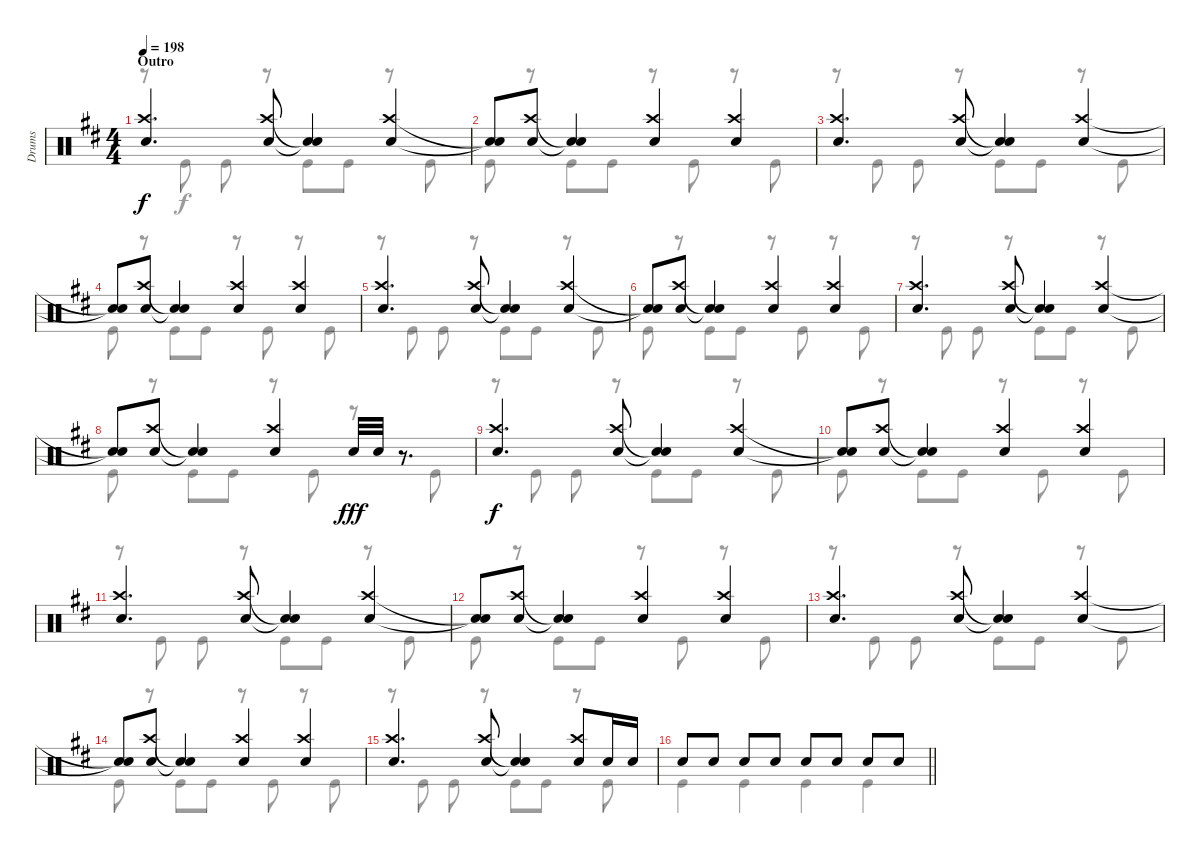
\track ("Drums" "Drums") {instrument percussion}
\staff {score}
\articulation defaults
\voice
\ts (4 4)
\section ("" "Outro")
\tempo 198
\clef neutral
\ks d
("Crash high (hit)" "Snare (hit) 2").4{d dy f} ("Crash high (hit)" "Snare (hit) 2").8 ("Snare (hit)"{t} "Snare (hit)"{t}).4 ("Crash high (hit)" "Snare (hit) 2").4 |
("Snare (hit)"{t} "Snare (hit)"{t}).8 ("Crash high (hit)" "Snare (hit) 2").8 ("Snare (hit)"{t} "Snare (hit)"{t}).4 ("Crash high (hit)" "Snare (hit) 2").4 ("Crash high (hit)" "Snare (hit) 2").4 |
("Crash high (hit)" "Snare (hit) 2").4{d} ("Crash high (hit)" "Snare (hit) 2").8 ("Snare (hit)"{t} "Snare (hit)"{t}).4 ("Crash high (hit)" "Snare (hit) 2").4 |
("Snare (hit)"{t} "Snare (hit)"{t}).8 ("Crash high (hit)" "Snare (hit) 2").8 ("Snare (hit)"{t} "Snare (hit)"{t}).4 ("Crash high (hit)" "Snare (hit) 2").4 ("Crash high (hit)" "Snare (hit) 2").4 |
("Crash high (hit)" "Snare (hit) 2").4{d} ("Crash high (hit)" "Snare (hit) 2").8 ("Snare (hit)"{t} "Snare (hit)"{t}).4 ("Crash high (hit)" "Snare (hit) 2").4 |
("Snare (hit)"{t} "Snare (hit)"{t}).8 ("Crash high (hit)" "Snare (hit) 2").8 ("Snare (hit)"{t} "Snare (hit)"{t}).4 ("Crash high (hit)" "Snare (hit) 2").4 ("Crash high (hit)" "Snare (hit) 2").4 |
("Crash high (hit)" "Snare (hit) 2").4{d} ("Crash high (hit)" "Snare (hit) 2").8 ("Snare (hit)"{t} "Snare (hit)"{t}).4 ("Crash high (hit)" "Snare (hit) 2").4 |
("Snare (hit)"{t} "Snare (hit)"{t}).8 ("Crash high (hit)" "Snare (hit) 2").8 ("Snare (hit)"{t} "Snare (hit)"{t}).4 ("Crash high (hit)" "Snare (hit) 2").4 "Snare (hit) 2".32{dy fff} "Snare (hit) 2".32 r.8{d} |
("Crash high (hit)" "Snare (hit) 2").4{d dy f} ("Crash high (hit)" "Snare (hit) 2").8 ("Snare (hit)"{t} "Snare (hit)"{t}).4 ("Crash high (hit)" "Snare (hit) 2").4 |
("Snare (hit)"{t} "Snare (hit)"{t}).8 ("Crash high (hit)" "Snare (hit) 2").8 ("Snare (hit)"{t} "Snare (hit)"{t}).4 ("Crash high (hit)" "Snare (hit) 2").4 ("Crash high (hit)" "Snare (hit) 2").4 |
("Crash high (hit)" "Snare (hit) 2").4{d} ("Crash high (hit)" "Snare (hit) 2").8 ("Snare (hit)"{t} "Snare (hit)"{t}).4 ("Crash high (hit)" "Snare (hit) 2").4 |
("Snare (hit)"{t} "Snare (hit)"{t}).8 ("Crash high (hit)" "Snare (hit) 2").8 ("Snare (hit)"{t} "Snare (hit)"{t}).4 ("Crash high (hit)" "Snare (hit) 2").4 ("Crash high (hit)" "Snare (hit) 2").4 |
("Crash high (hit)" "Snare (hit) 2").4{d} ("Crash high (hit)" "Snare (hit) 2").8 ("Snare (hit)"{t} "Snare (hit)"{t}).4 ("Crash high (hit)" "Snare (hit) 2").4 |
("Snare (hit)"{t} "Snare (hit)"{t}).8 ("Crash high (hit)" "Snare (hit) 2").8 ("Snare (hit)"{t} "Snare (hit)"{t}).4 ("Crash high (hit)" "Snare (hit) 2").4 ("Crash high (hit)" "Snare (hit) 2").4 |
("Crash high (hit)" "Snare (hit) 2").4{d} ("Crash high (hit)" "Snare (hit) 2").8 ("Snare (hit)"{t} "Snare (hit)"{t}).4 ("Crash high (hit)" "Snare (hit) 2").8 "Snare (hit) 2".16 "Snare (hit) 2".16 |
\barLineRight lightlight "Snare (hit) 2".8 "Snare (hit) 2".8 "Snare (hit) 2".8 "Snare (hit) 2".8 "Snare (hit) 2".8 "Snare (hit) 2".8 "Snare (hit) 2".8 "Snare (hit) 2".8
\voice
\clef neutral
\ottava regular
\simile none
\ks d
r.8{dy f} "Kick (hit)".8 "Kick (hit)".8 r.8 "Kick (hit)".8 "Kick (hit)".8 r.8 "Kick (hit)".8 |
"Kick (hit)".8 r.8 "Kick (hit)".8 "Kick (hit)".8 r.8 "Kick (hit)".8 r.8 "Kick (hit)".8 |
r.8 "Kick (hit)".8 "Kick (hit)".8 r.8 "Kick (hit)".8 "Kick (hit)".8 r.8 "Kick (hit)".8 |
"Kick (hit)".8 r.8 "Kick (hit)".8 "Kick (hit)".8 r.8 "Kick (hit)".8 r.8 "Kick (hit)".8 |
r.8 "Kick (hit)".8 "Kick (hit)".8 r.8 "Kick (hit)".8 "Kick (hit)".8 r.8 "Kick (hit)".8 |
"Kick (hit)".8 r.8 "Kick (hit)".8 "Kick (hit)".8 r.8 "Kick (hit)".8 r.8 "Kick (hit)".8 |
r.8 "Kick (hit)".8 "Kick (hit)".8 r.8 "Kick (hit)".8 "Kick (hit)".8 r.8 "Kick (hit)".8 |
"Kick (hit)".8 r.8 "Kick (hit)".8 "Kick (hit)".8 r.8 "Kick (hit)".8 r.8 "Kick (hit)".8 |
r.8 "Kick (hit)".8 "Kick (hit)".8 r.8 "Kick (hit)".8 "Kick (hit)".8 r.8 "Kick (hit)".8 |
"Kick (hit)".8 r.8 "Kick (hit)".8 "Kick (hit)".8 r.8 "Kick (hit)".8 r.8 "Kick (hit)".8 |
r.8 "Kick (hit)".8 "Kick (hit)".8 r.8 "Kick (hit)".8 "Kick (hit)".8 r.8 "Kick (hit)".8 |
"Kick (hit)".8 r.8 "Kick (hit)".8 "Kick (hit)".8 r.8 "Kick (hit)".8 r.8 "Kick (hit)".8 |
r.8 "Kick (hit)".8 "Kick (hit)".8 r.8 "Kick (hit)".8 "Kick (hit)".8 r.8 "Kick (hit)".8 |
"Kick (hit)".8 r.8 "Kick (hit)".8 "Kick (hit)".8 r.8 "Kick (hit)".8 r.8 "Kick (hit)".8 |
r.8 "Kick (hit)".8 "Kick (hit)".8 r.8 "Kick (hit)".8 "Kick (hit)".8 r.8 "Kick (hit)".8 |
\barLineRight lightlight "Kick (hit)".4 "Kick (hit)".4 "Kick (hit)".4 "Kick (hit)".4
